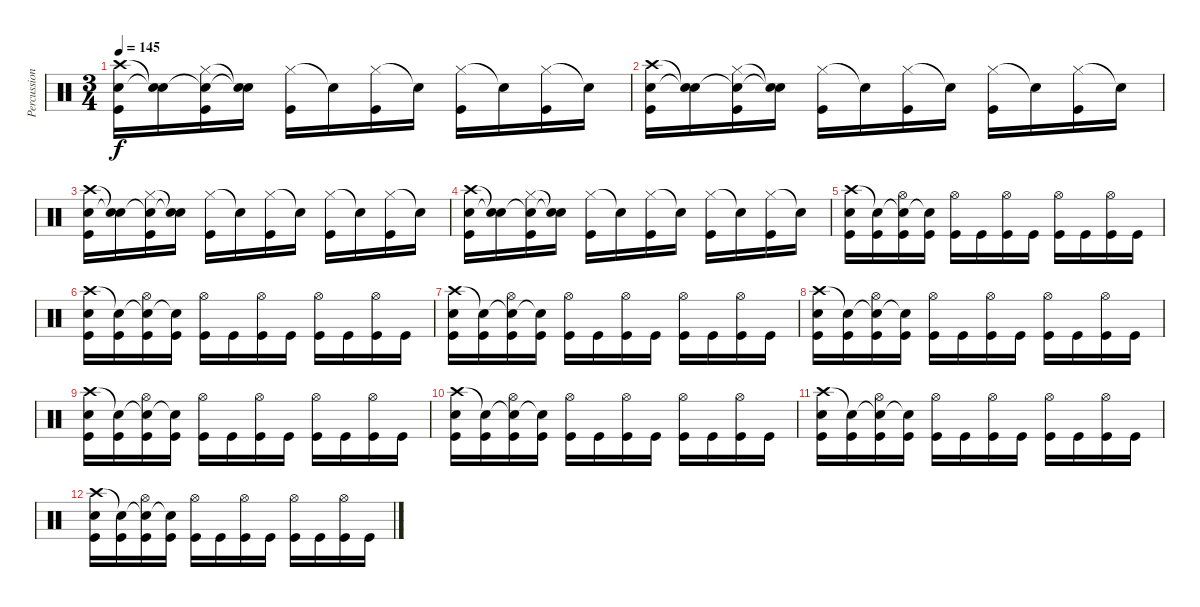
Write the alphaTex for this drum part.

\track ("Percussion" "Percussion") {instrument percussion}
\staff {score}
\articulation defaults
\ts (3 4)
\tempo 145
\clef neutral
\ks c
("Crash high (hit)" "Electric Snare (hit)" "Kick (hit)").16{dy f} ("Snare (hit)"{t} "Snare (hit)"{t}).16 ("Snare (hit)"{t} "Hi-Hat (closed)" "Kick (hit)").16 ("Snare (hit)"{t} "Snare (hit)"{t}).16 ("Hi-Hat (closed)" "Kick (hit)").16 "Snare (hit)"{t}.16 ("Hi-Hat (closed)" "Kick (hit)").16 "Snare (hit)"{t}.16 ("Hi-Hat (closed)" "Kick (hit)").16 "Snare (hit)"{t}.16 ("Hi-Hat (closed)" "Kick (hit)").16 "Snare (hit)"{t}.16 |
("Crash high (hit)" "Electric Snare (hit)" "Kick (hit)").16 ("Snare (hit)"{t} "Snare (hit)"{t}).16 ("Snare (hit)"{t} "Hi-Hat (closed)" "Kick (hit)").16 ("Snare (hit)"{t} "Snare (hit)"{t}).16 ("Hi-Hat (closed)" "Kick (hit)").16 "Snare (hit)"{t}.16 ("Hi-Hat (closed)" "Kick (hit)").16 "Snare (hit)"{t}.16 ("Hi-Hat (closed)" "Kick (hit)").16 "Snare (hit)"{t}.16 ("Hi-Hat (closed)" "Kick (hit)").16 "Snare (hit)"{t}.16 |
("Crash high (hit)" "Electric Snare (hit)" "Kick (hit)").16 ("Snare (hit)"{t} "Snare (hit)"{t}).16 ("Snare (hit)"{t} "Hi-Hat (closed)" "Kick (hit)").16 ("Snare (hit)"{t} "Snare (hit)"{t}).16 ("Hi-Hat (closed)" "Kick (hit)").16 "Snare (hit)"{t}.16 ("Hi-Hat (closed)" "Kick (hit)").16 "Snare (hit)"{t}.16 ("Hi-Hat (closed)" "Kick (hit)").16 "Snare (hit)"{t}.16 ("Hi-Hat (closed)" "Kick (hit)").16 "Snare (hit)"{t}.16 |
("Crash high (hit)" "Electric Snare (hit)" "Kick (hit)").16 ("Snare (hit)"{t} "Snare (hit)"{t}).16 ("Snare (hit)"{t} "Hi-Hat (closed)" "Kick (hit)").16 ("Snare (hit)"{t} "Snare (hit)"{t}).16 ("Hi-Hat (closed)" "Kick (hit)").16 "Snare (hit)"{t}.16 ("Hi-Hat (closed)" "Kick (hit)").16 "Snare (hit)"{t}.16 ("Hi-Hat (closed)" "Kick (hit)").16 "Snare (hit)"{t}.16 ("Hi-Hat (closed)" "Kick (hit)").16 "Snare (hit)"{t}.16 |
("Crash high (hit)" "Electric Snare (hit)" "Kick (hit)").16 ("Snare (hit)"{t} "Kick (hit)").16 ("Snare (hit)"{t} "Hi-Hat (open)" "Kick (hit)").16 ("Snare (hit)"{t} "Kick (hit)").16 ("Hi-Hat (open)" "Kick (hit)").16 "Kick (hit)".16 ("Hi-Hat (open)" "Kick (hit)").16 "Kick (hit)".16 ("Hi-Hat (open)" "Kick (hit)").16 "Kick (hit)".16 ("Hi-Hat (open)" "Kick (hit)").16 "Kick (hit)".16 |
("Crash high (hit)" "Electric Snare (hit)" "Kick (hit)").16 ("Snare (hit)"{t} "Kick (hit)").16 ("Snare (hit)"{t} "Hi-Hat (open)" "Kick (hit)").16 ("Snare (hit)"{t} "Kick (hit)").16 ("Hi-Hat (open)" "Kick (hit)").16 "Kick (hit)".16 ("Hi-Hat (open)" "Kick (hit)").16 "Kick (hit)".16 ("Hi-Hat (open)" "Kick (hit)").16 "Kick (hit)".16 ("Hi-Hat (open)" "Kick (hit)").16 "Kick (hit)".16 |
("Crash high (hit)" "Electric Snare (hit)" "Kick (hit)").16 ("Snare (hit)"{t} "Kick (hit)").16 ("Snare (hit)"{t} "Hi-Hat (open)" "Kick (hit)").16 ("Snare (hit)"{t} "Kick (hit)").16 ("Hi-Hat (open)" "Kick (hit)").16 "Kick (hit)".16 ("Hi-Hat (open)" "Kick (hit)").16 "Kick (hit)".16 ("Hi-Hat (open)" "Kick (hit)").16 "Kick (hit)".16 ("Hi-Hat (open)" "Kick (hit)").16 "Kick (hit)".16 |
("Crash high (hit)" "Electric Snare (hit)" "Kick (hit)").16 ("Snare (hit)"{t} "Kick (hit)").16 ("Snare (hit)"{t} "Hi-Hat (open)" "Kick (hit)").16 ("Snare (hit)"{t} "Kick (hit)").16 ("Hi-Hat (open)" "Kick (hit)").16 "Kick (hit)".16 ("Hi-Hat (open)" "Kick (hit)").16 "Kick (hit)".16 ("Hi-Hat (open)" "Kick (hit)").16 "Kick (hit)".16 ("Hi-Hat (open)" "Kick (hit)").16 "Kick (hit)".16 |
("Crash high (hit)" "Electric Snare (hit)" "Kick (hit)").16 ("Snare (hit)"{t} "Kick (hit)").16 ("Snare (hit)"{t} "Hi-Hat (open)" "Kick (hit)").16 ("Snare (hit)"{t} "Kick (hit)").16 ("Hi-Hat (open)" "Kick (hit)").16 "Kick (hit)".16 ("Hi-Hat (open)" "Kick (hit)").16 "Kick (hit)".16 ("Hi-Hat (open)" "Kick (hit)").16 "Kick (hit)".16 ("Hi-Hat (open)" "Kick (hit)").16 "Kick (hit)".16 |
("Crash high (hit)" "Electric Snare (hit)" "Kick (hit)").16 ("Snare (hit)"{t} "Kick (hit)").16 ("Snare (hit)"{t} "Hi-Hat (open)" "Kick (hit)").16 ("Snare (hit)"{t} "Kick (hit)").16 ("Hi-Hat (open)" "Kick (hit)").16 "Kick (hit)".16 ("Hi-Hat (open)" "Kick (hit)").16 "Kick (hit)".16 ("Hi-Hat (open)" "Kick (hit)").16 "Kick (hit)".16 ("Hi-Hat (open)" "Kick (hit)").16 "Kick (hit)".16 |
("Crash high (hit)" "Electric Snare (hit)" "Kick (hit)").16 ("Snare (hit)"{t} "Kick (hit)").16 ("Snare (hit)"{t} "Hi-Hat (open)" "Kick (hit)").16 ("Snare (hit)"{t} "Kick (hit)").16 ("Hi-Hat (open)" "Kick (hit)").16 "Kick (hit)".16 ("Hi-Hat (open)" "Kick (hit)").16 "Kick (hit)".16 ("Hi-Hat (open)" "Kick (hit)").16 "Kick (hit)".16 ("Hi-Hat (open)" "Kick (hit)").16 "Kick (hit)".16 |
("Crash high (hit)" "Electric Snare (hit)" "Kick (hit)").16 ("Snare (hit)"{t} "Kick (hit)").16 ("Snare (hit)"{t} "Hi-Hat (open)" "Kick (hit)").16 ("Snare (hit)"{t} "Kick (hit)").16 ("Hi-Hat (open)" "Kick (hit)").16 "Kick (hit)".16 ("Hi-Hat (open)" "Kick (hit)").16 "Kick (hit)".16 ("Hi-Hat (open)" "Kick (hit)").16 "Kick (hit)".16 ("Hi-Hat (open)" "Kick (hit)").16 "Kick (hit)".16
